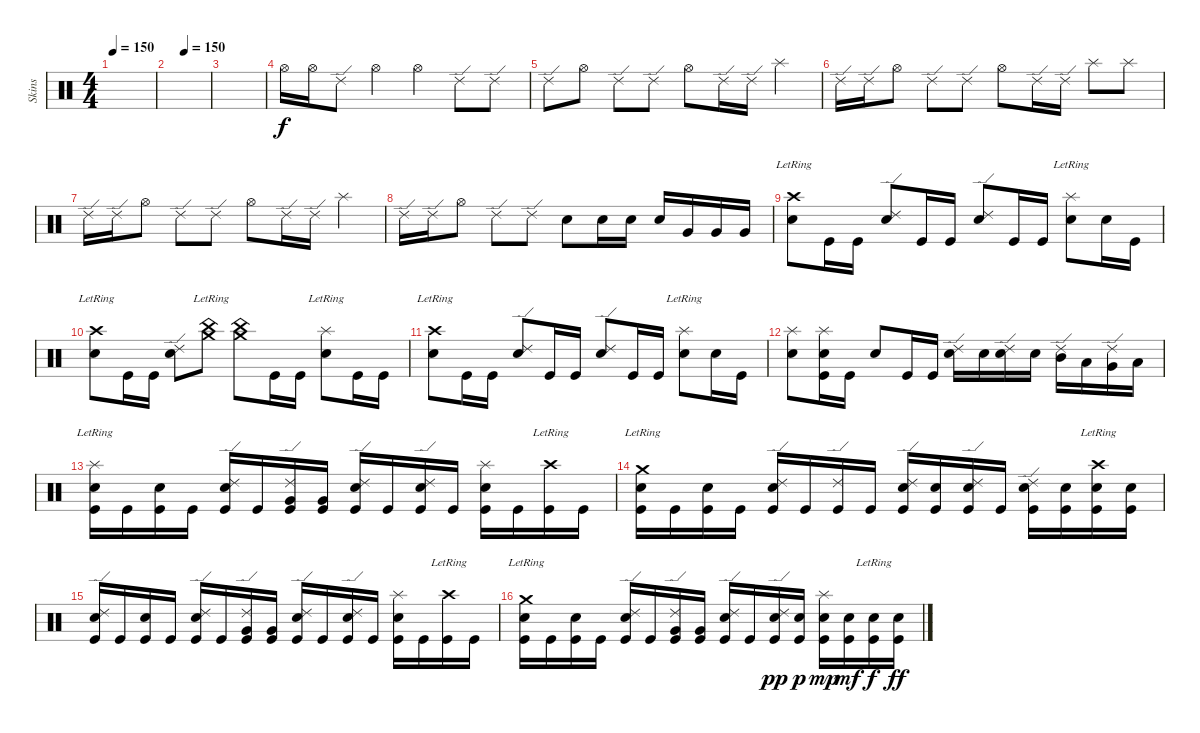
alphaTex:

\track ("Skins" "Skins") {instrument percussion}
\staff {score}
\articulation defaults
\ts (4 4)
\tempo 150
\clef neutral
\ks c
|
\tempo (150 0.375)
|
|
"Hi-Hat (open)".16 "Hi-Hat (open)".16 "Ride (edge) 2".8 "Hi-Hat (open)".4 "Hi-Hat (open)".4 "Ride (edge) 2".8 "Ride (edge) 2".8 |
"Ride (edge) 2".8 "Hi-Hat (open)".8 "Ride (edge) 2".8 "Ride (edge) 2".8 "Hi-Hat (open)".8 "Ride (edge) 2".16 "Ride (edge) 2".16 "Splash (hit)".4 |
"Ride (edge) 2".16 "Ride (edge) 2".16 "Hi-Hat (open)".8 "Ride (edge) 2".8 "Ride (edge) 2".8 "Hi-Hat (open)".8 "Ride (edge) 2".16 "Ride (edge) 2".16 "Splash (hit)".8 "Splash (hit)".8 |
"Ride (edge) 2".16 "Ride (edge) 2".16 "Hi-Hat (open)".8 "Ride (edge) 2".8 "Ride (edge) 2".8 "Hi-Hat (open)".8 "Ride (edge) 2".16 "Ride (edge) 2".16 "Splash (hit)".4 |
"Ride (edge) 2".16 "Ride (edge) 2".16 "Hi-Hat (open)".8 "Ride (edge) 2".8 "Ride (edge) 2".8 "Snare (hit) 2".8 "Snare (hit) 2".16 "Snare (hit) 2".16 "Snare (hit) 2".16 "Very Low Tom (hit)".16 "Very Low Tom (hit)".16 "Very Low Tom (hit)".16 |
("Snare (hit) 2" "Crash high (hit)"{lr}).8 "Kick (hit)".16 "Kick (hit)".16 ("Electric Snare (hit)" "Ride (edge) 2").8 "Kick (hit)".16 "Kick (hit)".16 ("Electric Snare (hit)" "Ride (edge) 2").8 "Kick (hit)".16 "Kick (hit)".16 ("Snare (hit) 2" "Splash (hit)"{lr}).8 "Snare (hit) 2".16 "Kick (hit)".16 |
("Snare (hit) 2" "Crash high (hit)"{lr}).8 "Kick (hit)".16 "Kick (hit)".16 ("Electric Snare (hit)" "Ride (edge) 2").8 ("China (hit)" "Crash medium (hit)"{lr}).8 ("China (hit)" "Crash medium (hit)").8 "Kick (hit)".16 "Kick (hit)".16 ("Snare (hit) 2" "Splash (hit)"{lr}).8 "Kick (hit)".16 "Kick (hit)".16 |
("Snare (hit) 2" "Crash high (hit)"{lr}).8 "Kick (hit)".16 "Kick (hit)".16 ("Electric Snare (hit)" "Ride (edge) 2").8 "Kick (hit)".16 "Kick (hit)".16 ("Electric Snare (hit)" "Ride (edge) 2").8 "Kick (hit)".16 "Kick (hit)".16 ("Snare (hit) 2" "Splash (hit)"{lr}).8 "Snare (hit) 2".16 "Kick (hit)".16 |
("Snare (hit) 2" "Splash (hit)").8 ("Snare (hit) 2" "Splash (hit)" "Kick (hit)").16 "Kick (hit)".16 "Electric Snare (hit)".8 "Kick (hit)".16 "Kick (hit)".16 ("Snare (hit) 2" "Ride (edge) 2").16 "Snare (hit) 2".16 ("Electric Snare (hit)" "Ride (edge) 2").16 "Electric Snare (hit)".16 ("Mid Tom (hit)" "Ride (edge) 2").16 "Low Tom (hit)".16 ("Very Low Tom (hit)" "Ride (edge) 2").16 "Low Floor Tom (hit)".16 |
("Snare (hit) 2" "Splash (hit)"{lr} "Kick (hit)").16 "Kick (hit)".16 ("Snare (hit) 2" "Kick (hit)").16 "Kick (hit)".16 ("Snare (hit) 2" "Ride (edge) 2" "Kick (hit)").16 "Kick (hit)".16 ("Very Low Tom (hit)" "Ride (edge) 2" "Kick (hit)").16 ("Very Low Tom (hit)" "Kick (hit)").16 ("Snare (hit) 2" "Ride (edge) 2" "Kick (hit)").16 "Kick (hit)".16 ("Snare (hit) 2" "Ride (edge) 2" "Kick (hit)").16 "Kick (hit)".16 ("Snare (hit) 2" "Splash (hit)" "Kick (hit)").16 "Kick (hit)".16 ("Crash high (hit)"{lr} "Kick (hit)").16 "Kick (hit)".16 |
("Snare (hit) 2" "Crash medium (hit)"{lr} "Kick (hit)").16 "Kick (hit)".16 ("Snare (hit) 2" "Kick (hit)").16 "Kick (hit)".16 ("Snare (hit) 2" "Ride (edge) 2" "Kick (hit)").16 "Kick (hit)".16 ("Ride (edge) 2" "Kick (hit)").16 "Kick (hit)".16 ("Electric Snare (hit)" "Ride (edge) 2" "Kick (hit)").16 ("Snare (hit) 2" "Kick (hit)").16 ("Electric Snare (hit)" "Ride (edge) 2" "Kick (hit)").16 "Kick (hit)".16 ("Electric Snare (hit)" "Ride (edge) 2" "Kick (hit)").16 ("Snare (hit) 2" "Kick (hit)").16 ("Electric Snare (hit)" "Crash high (hit)"{lr} "Kick (hit)").16 ("Electric Snare (hit)" "Kick (hit)").16 |
("Snare (hit) 2" "Ride (edge) 2" "Kick (hit)").16 "Kick (hit)".16 ("Snare (hit) 2" "Kick (hit)").16 "Kick (hit)".16 ("Snare (hit) 2" "Ride (edge) 2" "Kick (hit)").16 "Kick (hit)".16 ("Very Low Tom (hit)" "Ride (edge) 2" "Kick (hit)").16 ("Very Low Tom (hit)" "Kick (hit)").16 ("Snare (hit) 2" "Ride (edge) 2" "Kick (hit)").16 "Kick (hit)".16 ("Snare (hit) 2" "Ride (edge) 2" "Kick (hit)").16 "Kick (hit)".16 ("Snare (hit) 2" "Splash (hit)" "Kick (hit)").16 "Kick (hit)".16 ("Crash high (hit)"{lr} "Kick (hit)").16 "Kick (hit)".16 |
("Snare (hit) 2" "Crash medium (hit)"{lr} "Kick (hit)").16 "Kick (hit)".16 ("Snare (hit) 2" "Kick (hit)").16 "Kick (hit)".16 ("Snare (hit) 2" "Ride (edge) 2" "Kick (hit)").16 "Kick (hit)".16 ("Very Low Tom (hit)" "Ride (edge) 2" "Kick (hit)").16 ("Very Low Tom (hit)" "Kick (hit)").16 ("Snare (hit) 2" "Ride (edge) 2" "Kick (hit)").16 "Kick (hit)".16 ("Electric Snare (hit)" "Ride (edge) 2" "Kick (hit)").16{dy pp} ("Electric Snare (hit)" "Kick (hit)").16{dy p} ("Electric Snare (hit)" "Splash (hit)" "Kick (hit)").16{dy mp} ("Electric Snare (hit)" "Kick (hit)").16{dy mf} ("Electric Snare (hit)"{lr} "Kick (hit)").16{dy f} ("Electric Snare (hit)" "Kick (hit)").16{dy ff}
